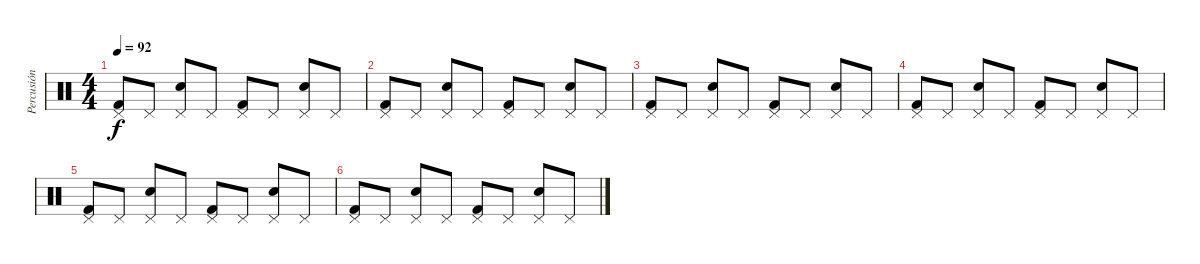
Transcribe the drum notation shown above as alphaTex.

\track ("Percusión" "Percusión") {instrument percussion}
\staff {score}
\articulation defaults
\ts (4 4)
\tempo 92
\clef neutral
\ks c
("Pedal Hi-Hat (hit)" "Kick (hit) 2").8{dy f} "Pedal Hi-Hat (hit)".8 ("Pedal Hi-Hat (hit)" "Snare (hit) 2").8 "Pedal Hi-Hat (hit)".8 ("Pedal Hi-Hat (hit)" "Kick (hit) 2").8 "Pedal Hi-Hat (hit)".8 ("Pedal Hi-Hat (hit)" "Snare (hit) 2").8 "Pedal Hi-Hat (hit)".8 |
("Pedal Hi-Hat (hit)" "Kick (hit) 2").8 "Pedal Hi-Hat (hit)".8 ("Pedal Hi-Hat (hit)" "Snare (hit) 2").8 "Pedal Hi-Hat (hit)".8 ("Pedal Hi-Hat (hit)" "Kick (hit) 2").8 "Pedal Hi-Hat (hit)".8 ("Pedal Hi-Hat (hit)" "Snare (hit) 2").8 "Pedal Hi-Hat (hit)".8 |
("Pedal Hi-Hat (hit)" "Kick (hit) 2").8 "Pedal Hi-Hat (hit)".8 ("Pedal Hi-Hat (hit)" "Snare (hit) 2").8 "Pedal Hi-Hat (hit)".8 ("Pedal Hi-Hat (hit)" "Kick (hit) 2").8 "Pedal Hi-Hat (hit)".8 ("Pedal Hi-Hat (hit)" "Snare (hit) 2").8 "Pedal Hi-Hat (hit)".8 |
("Pedal Hi-Hat (hit)" "Kick (hit) 2").8 "Pedal Hi-Hat (hit)".8 ("Pedal Hi-Hat (hit)" "Snare (hit) 2").8 "Pedal Hi-Hat (hit)".8 ("Pedal Hi-Hat (hit)" "Kick (hit) 2").8 "Pedal Hi-Hat (hit)".8 ("Pedal Hi-Hat (hit)" "Snare (hit) 2").8 "Pedal Hi-Hat (hit)".8 |
("Pedal Hi-Hat (hit)" "Kick (hit) 2").8 "Pedal Hi-Hat (hit)".8 ("Pedal Hi-Hat (hit)" "Snare (hit) 2").8 "Pedal Hi-Hat (hit)".8 ("Pedal Hi-Hat (hit)" "Kick (hit) 2").8 "Pedal Hi-Hat (hit)".8 ("Pedal Hi-Hat (hit)" "Snare (hit) 2").8 "Pedal Hi-Hat (hit)".8 |
("Pedal Hi-Hat (hit)" "Kick (hit) 2").8 "Pedal Hi-Hat (hit)".8 ("Pedal Hi-Hat (hit)" "Snare (hit) 2").8 "Pedal Hi-Hat (hit)".8 ("Pedal Hi-Hat (hit)" "Kick (hit) 2").8 "Pedal Hi-Hat (hit)".8 ("Pedal Hi-Hat (hit)" "Snare (hit) 2").8 "Pedal Hi-Hat (hit)".8
